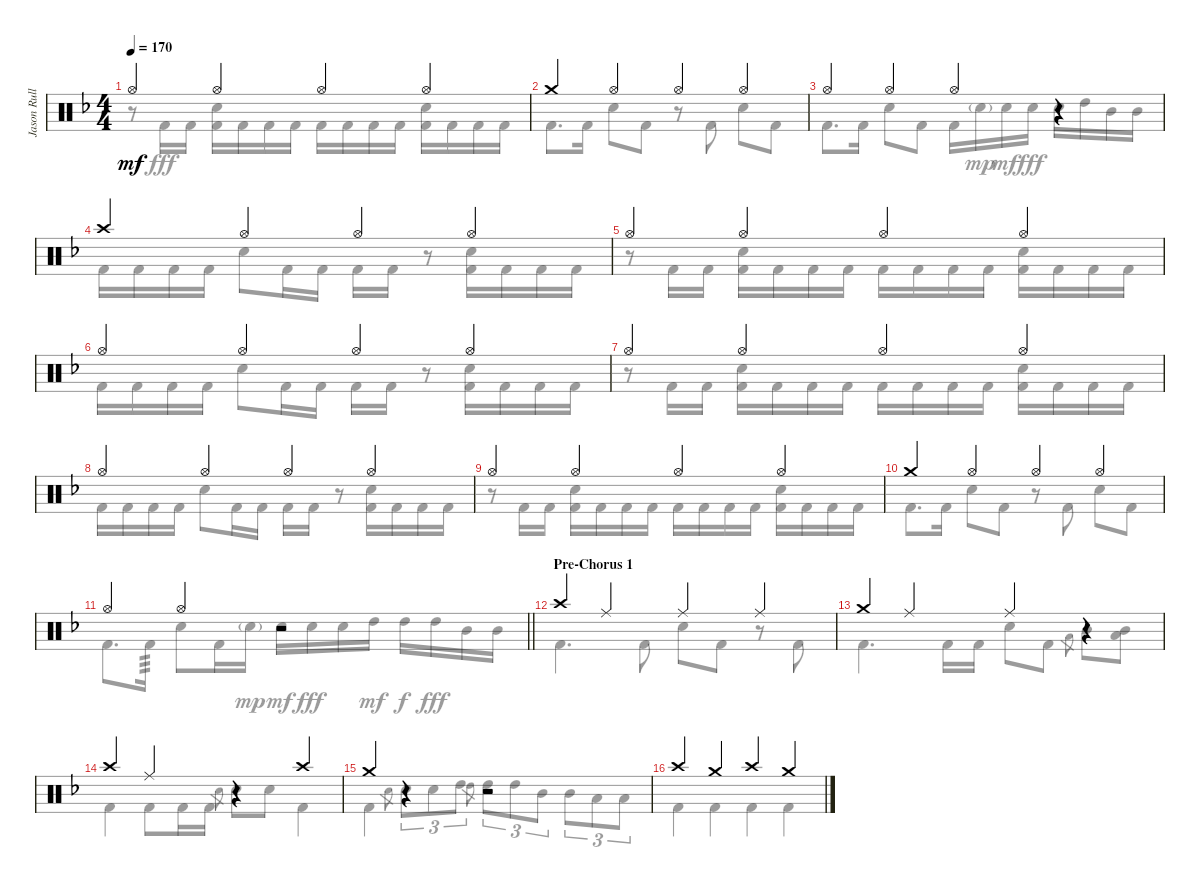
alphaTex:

\track ("Jason Rullo Drums" "Jason Rull") {instrument percussion}
\staff {score}
\articulation defaults
\voice
\ts (4 4)
\tempo 170
\clef neutral
\ks dminor "Hi-Hat (open)".4{dy mf} "Hi-Hat (open)".4 "Hi-Hat (open)".4 "Hi-Hat (open)".4
|
"Crash medium (hit)".4 "Hi-Hat (open)".4 "Hi-Hat (open)".4 "Hi-Hat (open)".4 |
"Hi-Hat (open)".4 "Hi-Hat (open)".4 "Hi-Hat (open)".4 r.4 |
"Crash high (hit)".4 "Hi-Hat (open)".4 "Hi-Hat (open)".4 "Hi-Hat (open)".4 |
"Hi-Hat (open)".4 "Hi-Hat (open)".4 "Hi-Hat (open)".4 "Hi-Hat (open)".4 |
"Hi-Hat (open)".4 "Hi-Hat (open)".4 "Hi-Hat (open)".4 "Hi-Hat (open)".4 |
"Hi-Hat (open)".4 "Hi-Hat (open)".4 "Hi-Hat (open)".4 "Hi-Hat (open)".4 |
"Hi-Hat (open)".4 "Hi-Hat (open)".4 "Hi-Hat (open)".4 "Hi-Hat (open)".4 |
"Hi-Hat (open)".4 "Hi-Hat (open)".4 "Hi-Hat (open)".4 "Hi-Hat (open)".4 |
"Crash medium (hit)".4 "Hi-Hat (open)".4 "Hi-Hat (open)".4 "Hi-Hat (open)".4 |
\barLineRight lightlight "Hi-Hat (open)".4 "Hi-Hat (open)".4
r.2 |
\section ("" "Pre-Chorus 1")
"Crash high (hit)".4 "Ride (middle)".4 "Ride (middle)".4 "Ride (middle)".4 |
"Crash medium (hit)".4 "Ride (middle)".4 "Ride (middle)".4 r.4 |
"Crash high (hit)".4 "Ride (middle)".4 r.4 "Crash high (hit)".4 |
"Crash medium (hit)".4 r.4 r.2 |
"Crash high (hit)".4 "Crash medium (hit)".4 "Crash high (hit)".4 "Crash medium (hit)".4
\voice
\clef neutral
\ottava regular
\simile none
\ks dminor
r.8{dy fff} "Kick (hit) 2".16 "Kick (hit) 2".16 ("Electric Snare (hit)" "Kick (hit) 2").16 "Kick (hit) 2".16 "Kick (hit) 2".16 "Kick (hit) 2".16 "Kick (hit) 2".16 "Kick (hit) 2".16 "Kick (hit) 2".16 "Kick (hit) 2".16 ("Electric Snare (hit)" "Kick (hit) 2").16 "Kick (hit) 2".16 "Kick (hit) 2".16 "Kick (hit) 2".16 |
"Kick (hit) 2".8{d} "Kick (hit) 2".16 "Electric Snare (hit)".8 "Kick (hit) 2".8 r.8 "Kick (hit) 2".8 "Electric Snare (hit)".8 "Kick (hit) 2".8 |
"Kick (hit) 2".8{d} "Kick (hit) 2".16 "Electric Snare (hit)".8 "Kick (hit) 2".8 "Kick (hit) 2".16 "Electric Snare (hit)"{g}.16{dy mp} "Electric Snare (hit)".16{dy mf} "Electric Snare (hit)".16{dy fff} "Electric Snare (hit)".16 "High Tom (hit)".16 "Mid Tom (hit)".16 "Mid Tom (hit)".16 |
"Kick (hit) 2".16 "Kick (hit) 2".16 "Kick (hit) 2".16 "Kick (hit) 2".16 "Electric Snare (hit)".8 "Kick (hit) 2".16 "Kick (hit) 2".16 "Kick (hit) 2".16 "Kick (hit) 2".16 r.8 ("Electric Snare (hit)" "Kick (hit) 2").16 "Kick (hit) 2".16 "Kick (hit) 2".16 "Kick (hit) 2".16 |
r.8 "Kick (hit) 2".16 "Kick (hit) 2".16 ("Electric Snare (hit)" "Kick (hit) 2").16 "Kick (hit) 2".16 "Kick (hit) 2".16 "Kick (hit) 2".16 "Kick (hit) 2".16 "Kick (hit) 2".16 "Kick (hit) 2".16 "Kick (hit) 2".16 ("Electric Snare (hit)" "Kick (hit) 2").16 "Kick (hit) 2".16 "Kick (hit) 2".16 "Kick (hit) 2".16 |
"Kick (hit) 2".16 "Kick (hit) 2".16 "Kick (hit) 2".16 "Kick (hit) 2".16 "Electric Snare (hit)".8 "Kick (hit) 2".16 "Kick (hit) 2".16 "Kick (hit) 2".16 "Kick (hit) 2".16 r.8 ("Electric Snare (hit)" "Kick (hit) 2").16 "Kick (hit) 2".16 "Kick (hit) 2".16 "Kick (hit) 2".16 |
r.8 "Kick (hit) 2".16 "Kick (hit) 2".16 ("Electric Snare (hit)" "Kick (hit) 2").16 "Kick (hit) 2".16 "Kick (hit) 2".16 "Kick (hit) 2".16 "Kick (hit) 2".16 "Kick (hit) 2".16 "Kick (hit) 2".16 "Kick (hit) 2".16 ("Electric Snare (hit)" "Kick (hit) 2").16 "Kick (hit) 2".16 "Kick (hit) 2".16 "Kick (hit) 2".16 |
"Kick (hit) 2".16 "Kick (hit) 2".16 "Kick (hit) 2".16 "Kick (hit) 2".16 "Electric Snare (hit)".8 "Kick (hit) 2".16 "Kick (hit) 2".16 "Kick (hit) 2".16 "Kick (hit) 2".16 r.8 ("Electric Snare (hit)" "Kick (hit) 2").16 "Kick (hit) 2".16 "Kick (hit) 2".16 "Kick (hit) 2".16 |
r.8 "Kick (hit) 2".16 "Kick (hit) 2".16 ("Electric Snare (hit)" "Kick (hit) 2").16 "Kick (hit) 2".16 "Kick (hit) 2".16 "Kick (hit) 2".16 "Kick (hit) 2".16 "Kick (hit) 2".16 "Kick (hit) 2".16 "Kick (hit) 2".16 ("Electric Snare (hit)" "Kick (hit) 2").16 "Kick (hit) 2".16 "Kick (hit) 2".16 "Kick (hit) 2".16 |
"Kick (hit) 2".8{d} "Kick (hit) 2".16 "Electric Snare (hit)".8 "Kick (hit) 2".8 r.8 "Kick (hit) 2".8 "Electric Snare (hit)".8 "Kick (hit) 2".8 |
\barLineRight lightlight "Kick (hit) 2".8{d} "Kick (hit) 2".16{tp 3} "Electric Snare (hit)".8 "Kick (hit) 2".16 "Electric Snare (hit)"{g}.16{dy mp} "Electric Snare (hit)".16{dy mf} "Electric Snare (hit)".16{dy fff} "Electric Snare (hit)".16 "High Tom (hit)".16{dy mf} "High Tom (hit)".16{dy f} "High Tom (hit)".16{dy fff} "Mid Tom (hit)".16 "Mid Tom (hit)".16
|
"Kick (hit) 2".4{d} "Kick (hit) 2".8 "Electric Snare (hit)".8 "Kick (hit) 2".8 r.8 "Kick (hit) 2".8 |
"Kick (hit) 2".4{d} "Kick (hit) 2".16 "Kick (hit) 2".16 "Electric Snare (hit)".8 "Kick (hit) 2".8 "Low Tom (hit)".8{gr} "Mid Tom (hit)".8 ("Mid Tom (hit)" "Low Tom (hit)").8 |
"Kick (hit) 2".4 "Kick (hit) 2".8 "Kick (hit) 2".16 "Kick (hit) 2".16 "Electric Snare (hit)".8{gr} "Electric Snare (hit)".8 "Electric Snare (hit)".8 "Kick (hit) 2".4 |
"Kick (hit) 2".4 "Electric Snare (hit)".8{gr} "Electric Snare (hit)".8{tu (3 2)} "Electric Snare (hit)".8{tu (3 2)} "High Tom (hit)".8{tu (3 2)} "High Tom (hit)".8{gr} "High Tom (hit)".8{tu (3 2)} "High Tom (hit)".8{tu (3 2)} "Mid Tom (hit)".8{tu (3 2)} "Mid Tom (hit)".8{tu (3 2)} "Low Tom (hit)".8{tu (3 2)} "Low Tom (hit)".8{tu (3 2)} |
"Kick (hit) 2".4 "Kick (hit) 2".4 "Kick (hit) 2".4 "Kick (hit) 2".4
